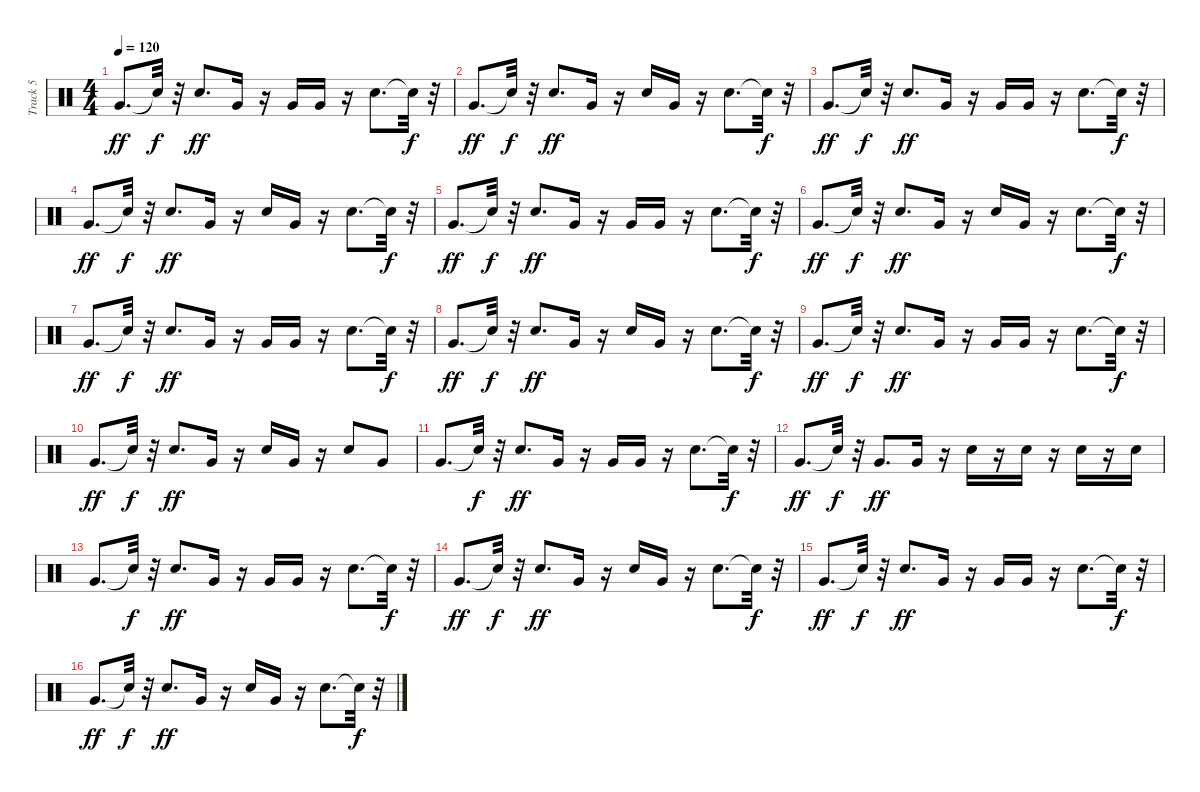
\track ("Track 5" "Track 5") {instrument percussion}
\staff {score}
\articulation defaults
\ts (4 4)
\tempo 120
\clef neutral
\ks c "Very Low Tom (hit)".8{d dy ff} "Snare (hit)"{t}.32{dy f}
r.32 "Snare (hit) 2".8{d dy ff} "Very Low Tom (hit)".16 r.16 "Very Low Tom (hit)".16 "Very Low Tom (hit)".16 r.16 "Snare (hit) 2".8{d} "Snare (hit)"{t}.32{dy f} r.32 |
"Very Low Tom (hit)".8{d dy ff} "Snare (hit)"{t}.32{dy f} r.32 "Snare (hit) 2".8{d dy ff} "Very Low Tom (hit)".16 r.16 "Snare (hit) 2".16 "Very Low Tom (hit)".16 r.16 "Snare (hit) 2".8{d} "Snare (hit)"{t}.32{dy f} r.32 |
"Very Low Tom (hit)".8{d dy ff} "Snare (hit)"{t}.32{dy f} r.32 "Snare (hit) 2".8{d dy ff} "Very Low Tom (hit)".16 r.16 "Very Low Tom (hit)".16 "Very Low Tom (hit)".16 r.16 "Snare (hit) 2".8{d} "Snare (hit)"{t}.32{dy f} r.32 |
"Very Low Tom (hit)".8{d dy ff} "Snare (hit)"{t}.32{dy f} r.32 "Snare (hit) 2".8{d dy ff} "Very Low Tom (hit)".16 r.16 "Snare (hit) 2".16 "Very Low Tom (hit)".16 r.16 "Snare (hit) 2".8{d} "Snare (hit)"{t}.32{dy f} r.32 |
"Very Low Tom (hit)".8{d dy ff} "Snare (hit)"{t}.32{dy f} r.32 "Snare (hit) 2".8{d dy ff} "Very Low Tom (hit)".16 r.16 "Very Low Tom (hit)".16 "Very Low Tom (hit)".16 r.16 "Snare (hit) 2".8{d} "Snare (hit)"{t}.32{dy f} r.32 |
"Very Low Tom (hit)".8{d dy ff} "Snare (hit)"{t}.32{dy f} r.32 "Snare (hit) 2".8{d dy ff} "Very Low Tom (hit)".16 r.16 "Snare (hit) 2".16 "Very Low Tom (hit)".16 r.16 "Snare (hit) 2".8{d} "Snare (hit)"{t}.32{dy f} r.32 |
"Very Low Tom (hit)".8{d dy ff} "Snare (hit)"{t}.32{dy f} r.32 "Snare (hit) 2".8{d dy ff} "Very Low Tom (hit)".16 r.16 "Very Low Tom (hit)".16 "Very Low Tom (hit)".16 r.16 "Snare (hit) 2".8{d} "Snare (hit)"{t}.32{dy f} r.32 |
"Very Low Tom (hit)".8{d dy ff} "Snare (hit)"{t}.32{dy f} r.32 "Snare (hit) 2".8{d dy ff} "Very Low Tom (hit)".16 r.16 "Snare (hit) 2".16 "Very Low Tom (hit)".16 r.16 "Snare (hit) 2".8{d} "Snare (hit)"{t}.32{dy f} r.32 |
"Very Low Tom (hit)".8{d dy ff} "Snare (hit)"{t}.32{dy f} r.32 "Snare (hit) 2".8{d dy ff} "Very Low Tom (hit)".16 r.16 "Very Low Tom (hit)".16 "Very Low Tom (hit)".16 r.16 "Snare (hit) 2".8{d} "Snare (hit)"{t}.32{dy f} r.32 |
"Very Low Tom (hit)".8{d dy ff} "Snare (hit)"{t}.32{dy f} r.32 "Snare (hit) 2".8{d dy ff} "Very Low Tom (hit)".16 r.16 "Snare (hit) 2".16 "Very Low Tom (hit)".16 r.16 "Snare (hit) 2".8 "Very Low Tom (hit)".8 |
"Very Low Tom (hit)".8{d} "Snare (hit)"{t}.32{dy f} r.32 "Snare (hit) 2".8{d dy ff} "Very Low Tom (hit)".16 r.16 "Very Low Tom (hit)".16 "Very Low Tom (hit)".16 r.16 "Snare (hit) 2".8{d} "Snare (hit)"{t}.32{dy f} r.32 |
"Very Low Tom (hit)".8{d dy ff} "Snare (hit)"{t}.32{dy f} r.32 "Very Low Tom (hit)".8{d dy ff} "Very Low Tom (hit)".16 r.16 "Snare (hit) 2".16 r.16 "Snare (hit) 2".16 r.16 "Snare (hit) 2".16 r.16 "Snare (hit) 2".16 |
"Very Low Tom (hit)".8{d} "Snare (hit)"{t}.32{dy f} r.32 "Snare (hit) 2".8{d dy ff} "Very Low Tom (hit)".16 r.16 "Very Low Tom (hit)".16 "Very Low Tom (hit)".16 r.16 "Snare (hit) 2".8{d} "Snare (hit)"{t}.32{dy f} r.32 |
"Very Low Tom (hit)".8{d dy ff} "Snare (hit)"{t}.32{dy f} r.32 "Snare (hit) 2".8{d dy ff} "Very Low Tom (hit)".16 r.16 "Snare (hit) 2".16 "Very Low Tom (hit)".16 r.16 "Snare (hit) 2".8{d} "Snare (hit)"{t}.32{dy f} r.32 |
"Very Low Tom (hit)".8{d dy ff} "Snare (hit)"{t}.32{dy f} r.32 "Snare (hit) 2".8{d dy ff} "Very Low Tom (hit)".16 r.16 "Very Low Tom (hit)".16 "Very Low Tom (hit)".16 r.16 "Snare (hit) 2".8{d} "Snare (hit)"{t}.32{dy f} r.32 |
"Very Low Tom (hit)".8{d dy ff} "Snare (hit)"{t}.32{dy f} r.32 "Snare (hit) 2".8{d dy ff} "Very Low Tom (hit)".16 r.16 "Snare (hit) 2".16 "Very Low Tom (hit)".16 r.16 "Snare (hit) 2".8{d} "Snare (hit)"{t}.32{dy f} r.32
